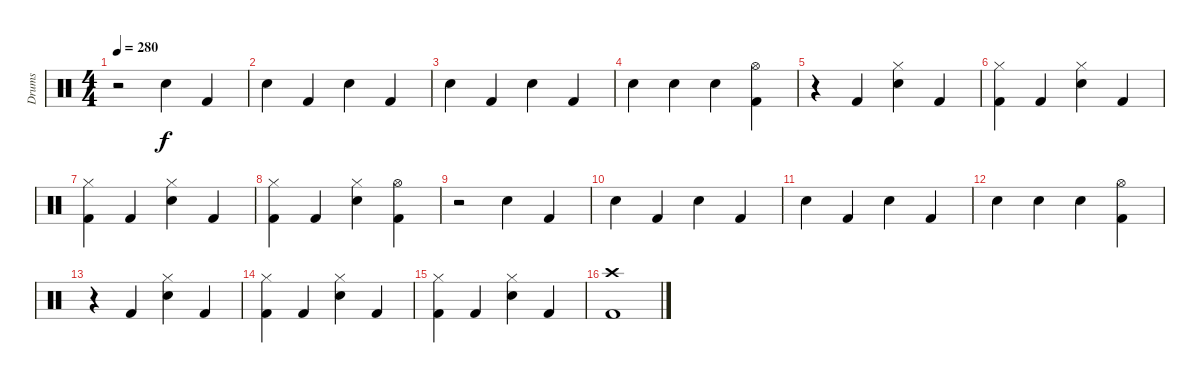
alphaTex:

\track ("Drums" "Drums") {instrument percussion}
\staff {score}
\articulation defaults
\ts (4 4)
\tempo 280
\clef neutral
\ks c
r.2{dy f} "Electric Snare (hit)".4 "Kick (hit) 2".4 |
"Electric Snare (hit)".4 "Kick (hit) 2".4 "Electric Snare (hit)".4 "Kick (hit) 2".4 |
"Electric Snare (hit)".4 "Kick (hit) 2".4 "Electric Snare (hit)".4 "Kick (hit) 2".4 |
"Electric Snare (hit)".4 "Electric Snare (hit)".4 "Electric Snare (hit)".4 ("Hi-Hat (open)" "Kick (hit) 2").4 |
r.4 "Kick (hit) 2".4 ("Hi-Hat (closed)" "Electric Snare (hit)").4 "Kick (hit) 2".4 |
("Hi-Hat (closed)" "Kick (hit) 2").4 "Kick (hit) 2".4 ("Hi-Hat (closed)" "Electric Snare (hit)").4 "Kick (hit) 2".4 |
("Hi-Hat (closed)" "Kick (hit) 2").4 "Kick (hit) 2".4 ("Hi-Hat (closed)" "Electric Snare (hit)").4 "Kick (hit) 2".4 |
("Hi-Hat (closed)" "Kick (hit) 2").4 "Kick (hit) 2".4 ("Hi-Hat (closed)" "Electric Snare (hit)").4 ("Hi-Hat (open)" "Kick (hit) 2").4 |
r.2 "Electric Snare (hit)".4 "Kick (hit) 2".4 |
"Electric Snare (hit)".4 "Kick (hit) 2".4 "Electric Snare (hit)".4 "Kick (hit) 2".4 |
"Electric Snare (hit)".4 "Kick (hit) 2".4 "Electric Snare (hit)".4 "Kick (hit) 2".4 |
"Electric Snare (hit)".4 "Electric Snare (hit)".4 "Electric Snare (hit)".4 ("Hi-Hat (open)" "Kick (hit) 2").4 |
r.4 "Kick (hit) 2".4 ("Hi-Hat (closed)" "Electric Snare (hit)").4 "Kick (hit) 2".4 |
("Hi-Hat (closed)" "Kick (hit) 2").4 "Kick (hit) 2".4 ("Hi-Hat (closed)" "Electric Snare (hit)").4 "Kick (hit) 2".4 |
("Hi-Hat (closed)" "Kick (hit) 2").4 "Kick (hit) 2".4 ("Hi-Hat (closed)" "Electric Snare (hit)").4 "Kick (hit) 2".4 |
("Crash high (hit)" "Kick (hit) 2").1
